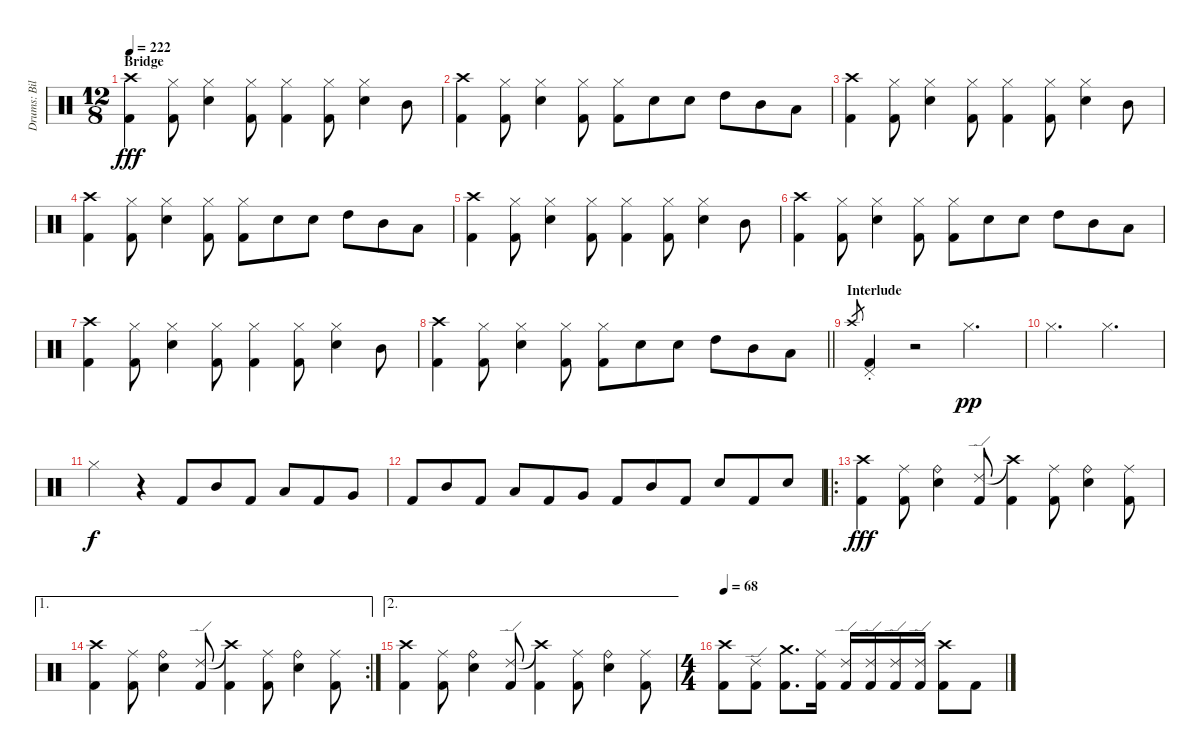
\track ("Drums: Bill" "Drums: Bil") {instrument percussion}
\staff {score}
\articulation defaults
\ts (12 8)
\section ("" "Bridge")
\tempo 222
\clef neutral
\ks c
("Crash high (hit)" "Kick (hit) 2").4{dy fff} ("Hi-Hat (closed)" "Kick (hit) 2").8 ("Hi-Hat (closed)" "Electric Snare (hit)").4 ("Hi-Hat (closed)" "Kick (hit) 2").8 ("Hi-Hat (closed)" "Kick (hit) 2").4 ("Hi-Hat (closed)" "Kick (hit) 2").8 ("Hi-Hat (closed)" "Electric Snare (hit)").4 "Mid Tom (hit)".8 |
("Crash high (hit)" "Kick (hit) 2").4 ("Hi-Hat (closed)" "Kick (hit) 2").8 ("Hi-Hat (closed)" "Electric Snare (hit)").4 ("Hi-Hat (closed)" "Kick (hit) 2").8 ("Hi-Hat (closed)" "Kick (hit) 2").8 "Electric Snare (hit)".8 "Electric Snare (hit)".8 "High Tom (hit)".8 "Mid Tom (hit)".8 "Low Tom (hit)".8 |
("Crash high (hit)" "Kick (hit) 2").4 ("Hi-Hat (closed)" "Kick (hit) 2").8 ("Hi-Hat (closed)" "Electric Snare (hit)").4 ("Hi-Hat (closed)" "Kick (hit) 2").8 ("Hi-Hat (closed)" "Kick (hit) 2").4 ("Hi-Hat (closed)" "Kick (hit) 2").8 ("Hi-Hat (closed)" "Electric Snare (hit)").4 "Mid Tom (hit)".8 |
("Crash high (hit)" "Kick (hit) 2").4 ("Hi-Hat (closed)" "Kick (hit) 2").8 ("Hi-Hat (closed)" "Electric Snare (hit)").4 ("Hi-Hat (closed)" "Kick (hit) 2").8 ("Hi-Hat (closed)" "Kick (hit) 2").8 "Electric Snare (hit)".8 "Electric Snare (hit)".8 "High Tom (hit)".8 "Mid Tom (hit)".8 "Low Tom (hit)".8 |
("Crash high (hit)" "Kick (hit) 2").4 ("Hi-Hat (closed)" "Kick (hit) 2").8 ("Hi-Hat (closed)" "Electric Snare (hit)").4 ("Hi-Hat (closed)" "Kick (hit) 2").8 ("Hi-Hat (closed)" "Kick (hit) 2").4 ("Hi-Hat (closed)" "Kick (hit) 2").8 ("Hi-Hat (closed)" "Electric Snare (hit)").4 "Mid Tom (hit)".8 |
("Crash high (hit)" "Kick (hit) 2").4 ("Hi-Hat (closed)" "Kick (hit) 2").8 ("Hi-Hat (closed)" "Electric Snare (hit)").4 ("Hi-Hat (closed)" "Kick (hit) 2").8 ("Hi-Hat (closed)" "Kick (hit) 2").8 "Electric Snare (hit)".8 "Electric Snare (hit)".8 "High Tom (hit)".8 "Mid Tom (hit)".8 "Low Tom (hit)".8 |
("Crash high (hit)" "Kick (hit) 2").4 ("Hi-Hat (closed)" "Kick (hit) 2").8 ("Hi-Hat (closed)" "Electric Snare (hit)").4 ("Hi-Hat (closed)" "Kick (hit) 2").8 ("Hi-Hat (closed)" "Kick (hit) 2").4 ("Hi-Hat (closed)" "Kick (hit) 2").8 ("Hi-Hat (closed)" "Electric Snare (hit)").4 "Mid Tom (hit)".8 |
\barLineRight lightlight
("Crash high (hit)" "Kick (hit) 2").4 ("Hi-Hat (closed)" "Kick (hit) 2").8 ("Hi-Hat (closed)" "Electric Snare (hit)").4 ("Hi-Hat (closed)" "Kick (hit) 2").8 ("Hi-Hat (closed)" "Kick (hit) 2").8 "Electric Snare (hit)".8 "Electric Snare (hit)".8 "High Tom (hit)".8 "Mid Tom (hit)".8 "Low Tom (hit)".8 |
\section ("" "Interlude")
"Crash high (hit)".8{gr} ("Pedal Hi-Hat (hit)"{st} "Kick (hit) 2"{st}).4 r.2 "Hi-Hat (closed)".2{d dy pp} |
"Hi-Hat (closed)".2{d} "Hi-Hat (closed)".2{d} |
"Hi-Hat (closed)".2{dy f} r.4{volume 3} "Kick (hit) 2".8{volume 16} "Mid Tom (hit)".8 "Kick (hit) 2".8 "Low Tom (hit)".8 "Kick (hit) 2".8 "Very Low Tom (hit)".8 |
"Kick (hit) 2".8 "Mid Tom (hit)".8 "Kick (hit) 2".8 "Low Tom (hit)".8 "Kick (hit) 2".8 "Very Low Tom (hit)".8 "Kick (hit) 2".8 "Mid Tom (hit)".8 "Kick (hit) 2".8 "Electric Snare (hit)".8 "Kick (hit) 2".8 "Electric Snare (hit)".8 |
\ro
("Crash high (hit)" "Kick (hit) 2").4{dy fff} ("Ride (middle)" "Kick (hit) 2").8 ("Ride (bell)" "Electric Snare (hit)").4 ("Ride (edge) 2" "Kick (hit) 2").8 ("Crash high (hit)"{t} "Kick (hit) 2").4 ("Ride (middle)" "Kick (hit) 2").8 ("Ride (bell)" "Electric Snare (hit)").4 ("Ride (middle)" "Kick (hit) 2").8 |
\ae 1
\rc 2
("Crash high (hit)" "Kick (hit) 2").4 ("Ride (middle)" "Kick (hit) 2").8 ("Ride (bell)" "Electric Snare (hit)").4 ("Ride (edge) 2" "Kick (hit) 2").8 ("Crash high (hit)"{t} "Kick (hit) 2").4 ("Ride (middle)" "Kick (hit) 2").8 ("Ride (bell)" "Electric Snare (hit)").4 ("Ride (middle)" "Kick (hit) 2").8 |
\ae 2
("Crash high (hit)" "Kick (hit) 2").4 ("Ride (middle)" "Kick (hit) 2").8 ("Ride (bell)" "Electric Snare (hit)").4 ("Ride (edge) 2" "Kick (hit) 2").8 ("Crash high (hit)"{t} "Kick (hit) 2").4 ("Ride (middle)" "Kick (hit) 2").8 ("Ride (bell)" "Electric Snare (hit)").4 ("Ride (middle)" "Kick (hit) 2").8 |
\ts (4 4)
\tempo 68
("Crash high (hit)" "Kick (hit) 2").8 ("Ride (edge) 2" "Kick (hit) 2").8 ("Crash medium (hit)" "Kick (hit) 2").8{d} ("Ride (middle)" "Kick (hit) 2").16 ("Ride (edge) 2" "Kick (hit) 2").16 ("Ride (edge) 2" "Kick (hit) 2").16 ("Ride (edge) 2" "Kick (hit) 2").16 ("Ride (edge) 2" "Kick (hit) 2").16 ("Crash high (hit)" "Kick (hit) 2").8 "Kick (hit) 2".8
